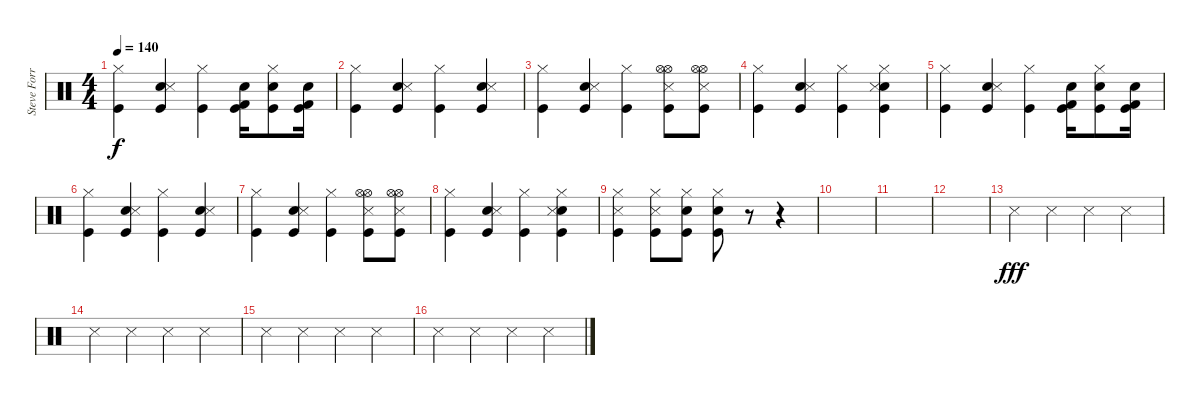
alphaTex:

\track ("Steve Forrest - Drums" "Steve Forr") {instrument percussion}
\staff {score}
\articulation defaults
\ts (4 4)
\tempo 140
\clef neutral
\ks c
("Hi-Hat (closed)" "Kick (hit)").4{dy f} ("Electric Snare (hit)" "Snare (side stick) 3" "Kick (hit)").4 ("Hi-Hat (closed)" "Kick (hit)").4 ("Kick (hit) 2" "Electric Snare (hit)" "Kick (hit)").16 ("Hi-Hat (closed)" "Electric Snare (hit)" "Kick (hit)").8 ("Kick (hit) 2" "Electric Snare (hit)" "Kick (hit)").16 |
("Hi-Hat (closed)" "Kick (hit)").4 ("Electric Snare (hit)" "Snare (side stick) 3" "Kick (hit)").4 ("Hi-Hat (closed)" "Kick (hit)").4 ("Electric Snare (hit)" "Snare (side stick) 3" "Kick (hit)").4 |
("Hi-Hat (closed)" "Kick (hit)").4 ("Electric Snare (hit)" "Snare (side stick) 3" "Kick (hit)").4 ("Hi-Hat (closed)" "Kick (hit)").4 ("Hi-Hat (open)" "Hi-Hat (open)" "Snare (side stick) 3" "Kick (hit)").8 ("Hi-Hat (open)" "Hi-Hat (open)" "Snare (side stick) 3" "Kick (hit)").8 |
("Hi-Hat (closed)" "Kick (hit)").4 ("Electric Snare (hit)" "Snare (side stick) 3" "Kick (hit)").4 ("Hi-Hat (closed)" "Kick (hit)").4 ("Electric Snare (hit)" "Snare (side stick) 3" "Hi-Hat (closed)" "Kick (hit)").4 |
("Hi-Hat (closed)" "Kick (hit)").4 ("Electric Snare (hit)" "Snare (side stick) 3" "Kick (hit)").4 ("Hi-Hat (closed)" "Kick (hit)").4 ("Kick (hit) 2" "Electric Snare (hit)" "Kick (hit)").16 ("Hi-Hat (closed)" "Electric Snare (hit)" "Kick (hit)").8 ("Kick (hit) 2" "Electric Snare (hit)" "Kick (hit)").16 |
("Hi-Hat (closed)" "Kick (hit)").4 ("Electric Snare (hit)" "Snare (side stick) 3" "Kick (hit)").4 ("Hi-Hat (closed)" "Kick (hit)").4 ("Electric Snare (hit)" "Snare (side stick) 3" "Kick (hit)").4 |
("Hi-Hat (closed)" "Kick (hit)").4 ("Electric Snare (hit)" "Snare (side stick) 3" "Kick (hit)").4 ("Hi-Hat (closed)" "Kick (hit)").4 ("Hi-Hat (open)" "Hi-Hat (open)" "Snare (side stick) 3" "Kick (hit)").8 ("Hi-Hat (open)" "Hi-Hat (open)" "Snare (side stick) 3" "Kick (hit)").8 |
("Hi-Hat (closed)" "Kick (hit)").4 ("Electric Snare (hit)" "Snare (side stick) 3" "Kick (hit)").4 ("Hi-Hat (closed)" "Kick (hit)").4 ("Electric Snare (hit)" "Snare (side stick) 3" "Hi-Hat (closed)" "Kick (hit)").4 |
("Snare (side stick) 3" "Hi-Hat (closed)" "Kick (hit)").4 ("Snare (side stick) 3" "Hi-Hat (closed)" "Kick (hit)").8 ("Snare (hit) 2" "Hi-Hat (closed)" "Kick (hit)").8 ("Snare (hit) 2" "Hi-Hat (closed)" "Kick (hit)").8 r.8 r.4 |
|
|
|
"Snare (side stick) 3".4{dy fff} "Snare (side stick) 3".4 "Snare (side stick) 3".4 "Snare (side stick) 3".4 |
"Snare (side stick) 3".4 "Snare (side stick) 3".4 "Snare (side stick) 3".4 "Snare (side stick) 3".4 |
"Snare (side stick) 3".4 "Snare (side stick) 3".4 "Snare (side stick) 3".4 "Snare (side stick) 3".4 |
"Snare (side stick) 3".4 "Snare (side stick) 3".4 "Snare (side stick) 3".4 "Snare (side stick) 3".4
